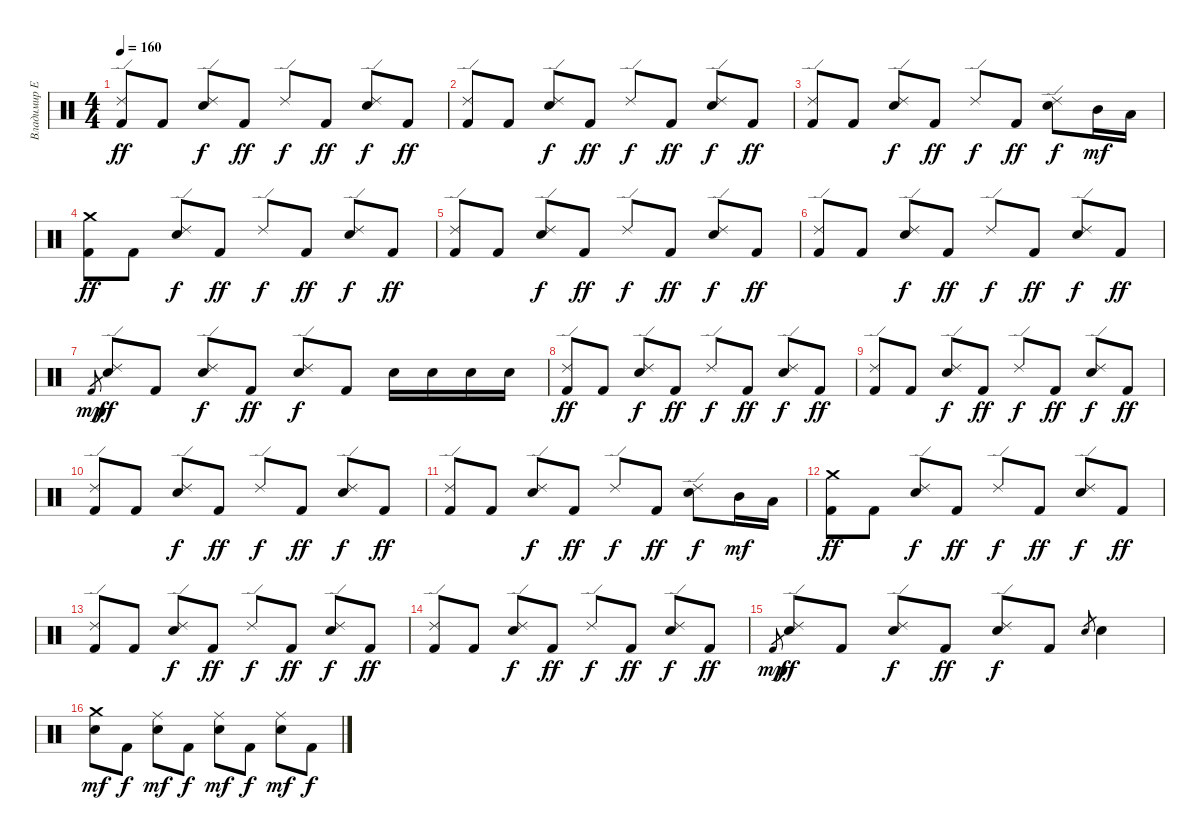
\track ("Владимир Ермаков" "Владимир Е") {instrument percussion}
\staff {score}
\articulation defaults
\ts (4 4)
\tempo 160
\clef neutral
\ks c
("Ride (edge) 2" "Kick (hit) 2").8{dy ff} "Kick (hit) 2".8 ("Ride (edge) 2" "Electric Snare (hit)").8{dy f} "Kick (hit) 2".8{dy ff} "Ride (edge) 2".8{dy f} "Kick (hit) 2".8{dy ff} ("Ride (edge) 2" "Electric Snare (hit)").8{dy f} "Kick (hit) 2".8{dy ff} |
("Ride (edge) 2" "Kick (hit) 2").8 "Kick (hit) 2".8 ("Ride (edge) 2" "Electric Snare (hit)").8{dy f} "Kick (hit) 2".8{dy ff} "Ride (edge) 2".8{dy f} "Kick (hit) 2".8{dy ff} ("Ride (edge) 2" "Electric Snare (hit)").8{dy f} "Kick (hit) 2".8{dy ff} |
("Ride (edge) 2" "Kick (hit) 2").8 "Kick (hit) 2".8 ("Ride (edge) 2" "Electric Snare (hit)").8{dy f} "Kick (hit) 2".8{dy ff} "Ride (edge) 2".8{dy f} "Kick (hit) 2".8{dy ff} ("Ride (edge) 2" "Electric Snare (hit)").8{dy f} "Mid Tom (hit)".16{dy mf} "Low Tom (hit)".16 |
("Crash medium (hit)" "Kick (hit) 2").8{dy ff} "Kick (hit) 2".8 ("Ride (edge) 2" "Electric Snare (hit)").8{dy f} "Kick (hit) 2".8{dy ff} "Ride (edge) 2".8{dy f} "Kick (hit) 2".8{dy ff} ("Ride (edge) 2" "Electric Snare (hit)").8{dy f} "Kick (hit) 2".8{dy ff} |
("Ride (edge) 2" "Kick (hit) 2").8 "Kick (hit) 2".8 ("Ride (edge) 2" "Electric Snare (hit)").8{dy f} "Kick (hit) 2".8{dy ff} "Ride (edge) 2".8{dy f} "Kick (hit) 2".8{dy ff} ("Ride (edge) 2" "Electric Snare (hit)").8{dy f} "Kick (hit) 2".8{dy ff} |
("Ride (edge) 2" "Kick (hit) 2").8 "Kick (hit) 2".8 ("Ride (edge) 2" "Electric Snare (hit)").8{dy f} "Kick (hit) 2".8{dy ff} "Ride (edge) 2".8{dy f} "Kick (hit) 2".8{dy ff} ("Ride (edge) 2" "Electric Snare (hit)").8{dy f} "Kick (hit) 2".8{dy ff} |
"Kick (hit) 2".8{gr dy mp} ("Ride (edge) 2" "Electric Snare (hit)").8{dy ff} "Kick (hit) 2".8 ("Ride (edge) 2" "Electric Snare (hit)").8{dy f} "Kick (hit) 2".8{dy ff} ("Ride (edge) 2" "Electric Snare (hit)").8{dy f} "Kick (hit) 2".8 "Electric Snare (hit)".16 "Electric Snare (hit)".16 "Electric Snare (hit)".16 "Electric Snare (hit)".16 |
("Ride (edge) 2" "Kick (hit) 2").8{dy ff} "Kick (hit) 2".8 ("Ride (edge) 2" "Electric Snare (hit)").8{dy f} "Kick (hit) 2".8{dy ff} "Ride (edge) 2".8{dy f} "Kick (hit) 2".8{dy ff} ("Ride (edge) 2" "Electric Snare (hit)").8{dy f} "Kick (hit) 2".8{dy ff} |
("Ride (edge) 2" "Kick (hit) 2").8 "Kick (hit) 2".8 ("Ride (edge) 2" "Electric Snare (hit)").8{dy f} "Kick (hit) 2".8{dy ff} "Ride (edge) 2".8{dy f} "Kick (hit) 2".8{dy ff} ("Ride (edge) 2" "Electric Snare (hit)").8{dy f} "Kick (hit) 2".8{dy ff} |
("Ride (edge) 2" "Kick (hit) 2").8 "Kick (hit) 2".8 ("Ride (edge) 2" "Electric Snare (hit)").8{dy f} "Kick (hit) 2".8{dy ff} "Ride (edge) 2".8{dy f} "Kick (hit) 2".8{dy ff} ("Ride (edge) 2" "Electric Snare (hit)").8{dy f} "Kick (hit) 2".8{dy ff} |
("Ride (edge) 2" "Kick (hit) 2").8 "Kick (hit) 2".8 ("Ride (edge) 2" "Electric Snare (hit)").8{dy f} "Kick (hit) 2".8{dy ff} "Ride (edge) 2".8{dy f} "Kick (hit) 2".8{dy ff} ("Ride (edge) 2" "Electric Snare (hit)").8{dy f} "Mid Tom (hit)".16{dy mf} "Low Tom (hit)".16 |
("Crash medium (hit)" "Kick (hit) 2").8{dy ff} "Kick (hit) 2".8 ("Ride (edge) 2" "Electric Snare (hit)").8{dy f} "Kick (hit) 2".8{dy ff} "Ride (edge) 2".8{dy f} "Kick (hit) 2".8{dy ff} ("Ride (edge) 2" "Electric Snare (hit)").8{dy f} "Kick (hit) 2".8{dy ff} |
("Ride (edge) 2" "Kick (hit) 2").8 "Kick (hit) 2".8 ("Ride (edge) 2" "Electric Snare (hit)").8{dy f} "Kick (hit) 2".8{dy ff} "Ride (edge) 2".8{dy f} "Kick (hit) 2".8{dy ff} ("Ride (edge) 2" "Electric Snare (hit)").8{dy f} "Kick (hit) 2".8{dy ff} |
("Ride (edge) 2" "Kick (hit) 2").8 "Kick (hit) 2".8 ("Ride (edge) 2" "Electric Snare (hit)").8{dy f} "Kick (hit) 2".8{dy ff} "Ride (edge) 2".8{dy f} "Kick (hit) 2".8{dy ff} ("Ride (edge) 2" "Electric Snare (hit)").8{dy f} "Kick (hit) 2".8{dy ff} |
"Kick (hit) 2".8{gr dy mp} ("Ride (edge) 2" "Electric Snare (hit)").8{dy ff} "Kick (hit) 2".8 ("Ride (edge) 2" "Electric Snare (hit)").8{dy f} "Kick (hit) 2".8{dy ff} ("Ride (edge) 2" "Electric Snare (hit)").8{dy f} "Kick (hit) 2".8 "Electric Snare (hit)".8{gr} "Electric Snare (hit)".4 |
("Crash medium (hit)" "Electric Snare (hit)").8{dy mf} "Kick (hit) 2".8{dy f} ("Ride (middle)" "Electric Snare (hit)").8{dy mf} "Kick (hit) 2".8{dy f} ("Ride (middle)" "Electric Snare (hit)").8{dy mf} "Kick (hit) 2".8{dy f} ("Ride (middle)" "Electric Snare (hit)").8{dy mf} "Kick (hit) 2".8{dy f}
